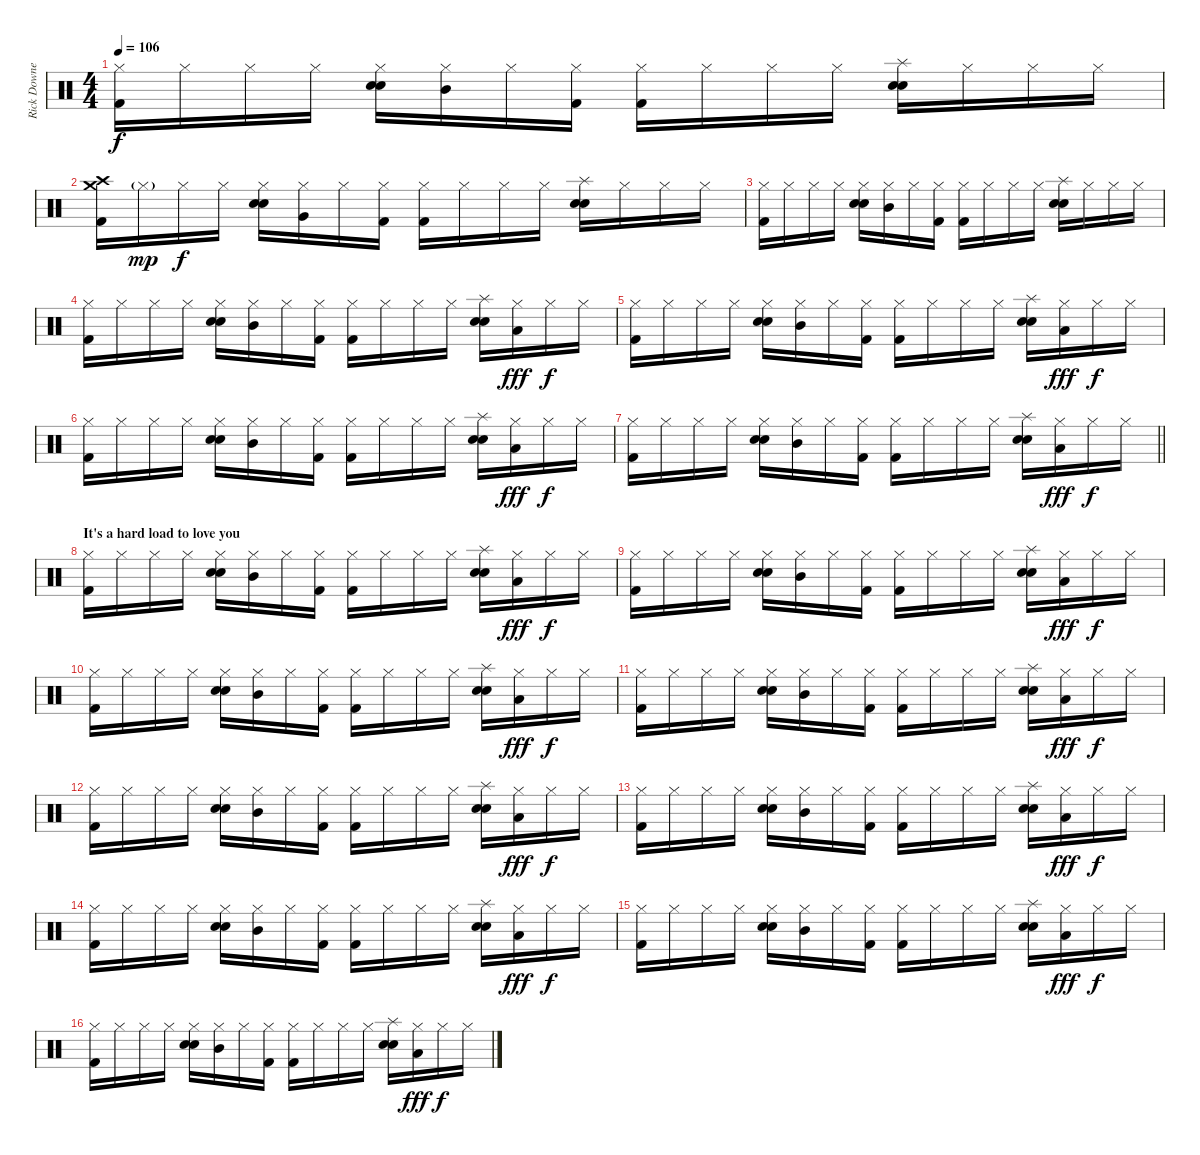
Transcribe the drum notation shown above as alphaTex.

\track ("Rick Downey" "Rick Downe") {instrument percussion}
\staff {score}
\articulation defaults
\ts (4 4)
\tempo 106
\clef neutral
\ks c
("Hi-Hat (closed)" "Kick (hit) 2").16{dy f} "Hi-Hat (closed)".16 "Hi-Hat (closed)".16 "Hi-Hat (closed)".16 ("Hi-Hat (closed)" "Electric Snare (hit)" "Snare (hit) 2").16 ("Mid Tom (hit)" "Hi-Hat (closed)").16 "Hi-Hat (closed)".16 ("Hi-Hat (closed)" "Kick (hit) 2").16 ("Hi-Hat (closed)" "Kick (hit) 2").16 "Hi-Hat (closed)".16 "Hi-Hat (closed)".16 "Hi-Hat (closed)".16 ("Splash (hit)" "Electric Snare (hit)" "Snare (hit) 2").16 "Hi-Hat (closed)".16 "Hi-Hat (closed)".16 "Hi-Hat (closed)".16 |
("Crash medium (hit)" "Crash high (hit)" "Kick (hit) 2").16 "Hi-Hat (closed)"{g}.16{dy mp} "Hi-Hat (closed)".16{dy f} "Hi-Hat (closed)".16 ("Hi-Hat (closed)" "Electric Snare (hit)" "Snare (hit) 2").16 ("Hi-Hat (closed)" "Very Low Tom (hit)").16 "Hi-Hat (closed)".16 ("Hi-Hat (closed)" "Kick (hit) 2").16 ("Hi-Hat (closed)" "Kick (hit) 2").16 "Hi-Hat (closed)".16 "Hi-Hat (closed)".16 "Hi-Hat (closed)".16 ("Splash (hit)" "Electric Snare (hit)" "Snare (hit) 2").16 "Hi-Hat (closed)".16 "Hi-Hat (closed)".16 "Hi-Hat (closed)".16 |
("Hi-Hat (closed)" "Kick (hit) 2").16 "Hi-Hat (closed)".16 "Hi-Hat (closed)".16 "Hi-Hat (closed)".16 ("Hi-Hat (closed)" "Electric Snare (hit)" "Snare (hit) 2").16 ("Mid Tom (hit)" "Hi-Hat (closed)").16 "Hi-Hat (closed)".16 ("Hi-Hat (closed)" "Kick (hit) 2").16 ("Hi-Hat (closed)" "Kick (hit) 2").16 "Hi-Hat (closed)".16 "Hi-Hat (closed)".16 "Hi-Hat (closed)".16 ("Splash (hit)" "Electric Snare (hit)" "Snare (hit) 2").16 "Hi-Hat (closed)".16 "Hi-Hat (closed)".16 "Hi-Hat (closed)".16 |
("Hi-Hat (closed)" "Kick (hit) 2").16 "Hi-Hat (closed)".16 "Hi-Hat (closed)".16 "Hi-Hat (closed)".16 ("Hi-Hat (closed)" "Electric Snare (hit)" "Snare (hit) 2").16 ("Mid Tom (hit)" "Hi-Hat (closed)").16 "Hi-Hat (closed)".16 ("Hi-Hat (closed)" "Kick (hit) 2").16 ("Hi-Hat (closed)" "Kick (hit) 2").16 "Hi-Hat (closed)".16 "Hi-Hat (closed)".16 "Hi-Hat (closed)".16 ("Splash (hit)" "Electric Snare (hit)" "Snare (hit) 2").16 ("Low Tom (hit)" "Hi-Hat (closed)").16{dy fff} "Hi-Hat (closed)".16{dy f} "Hi-Hat (closed)".16 |
("Hi-Hat (closed)" "Kick (hit) 2").16 "Hi-Hat (closed)".16 "Hi-Hat (closed)".16 "Hi-Hat (closed)".16 ("Hi-Hat (closed)" "Electric Snare (hit)" "Snare (hit) 2").16 ("Mid Tom (hit)" "Hi-Hat (closed)").16 "Hi-Hat (closed)".16 ("Hi-Hat (closed)" "Kick (hit) 2").16 ("Hi-Hat (closed)" "Kick (hit) 2").16 "Hi-Hat (closed)".16 "Hi-Hat (closed)".16 "Hi-Hat (closed)".16 ("Splash (hit)" "Electric Snare (hit)" "Snare (hit) 2").16 ("Low Tom (hit)" "Hi-Hat (closed)").16{dy fff} "Hi-Hat (closed)".16{dy f} "Hi-Hat (closed)".16 |
("Hi-Hat (closed)" "Kick (hit) 2").16 "Hi-Hat (closed)".16 "Hi-Hat (closed)".16 "Hi-Hat (closed)".16 ("Hi-Hat (closed)" "Electric Snare (hit)" "Snare (hit) 2").16 ("Mid Tom (hit)" "Hi-Hat (closed)").16 "Hi-Hat (closed)".16 ("Hi-Hat (closed)" "Kick (hit) 2").16 ("Hi-Hat (closed)" "Kick (hit) 2").16 "Hi-Hat (closed)".16 "Hi-Hat (closed)".16 "Hi-Hat (closed)".16 ("Splash (hit)" "Electric Snare (hit)" "Snare (hit) 2").16 ("Low Tom (hit)" "Hi-Hat (closed)").16{dy fff} "Hi-Hat (closed)".16{dy f} "Hi-Hat (closed)".16 |
\barLineRight lightlight
("Hi-Hat (closed)" "Kick (hit) 2").16 "Hi-Hat (closed)".16 "Hi-Hat (closed)".16 "Hi-Hat (closed)".16 ("Hi-Hat (closed)" "Electric Snare (hit)" "Snare (hit) 2").16 ("Mid Tom (hit)" "Hi-Hat (closed)").16 "Hi-Hat (closed)".16 ("Hi-Hat (closed)" "Kick (hit) 2").16 ("Hi-Hat (closed)" "Kick (hit) 2").16 "Hi-Hat (closed)".16 "Hi-Hat (closed)".16 "Hi-Hat (closed)".16 ("Splash (hit)" "Electric Snare (hit)" "Snare (hit) 2").16 ("Low Tom (hit)" "Hi-Hat (closed)").16{dy fff} "Hi-Hat (closed)".16{dy f} "Hi-Hat (closed)".16 |
\section ("" "It's a hard load to love you")
("Hi-Hat (closed)" "Kick (hit) 2").16 "Hi-Hat (closed)".16 "Hi-Hat (closed)".16 "Hi-Hat (closed)".16 ("Hi-Hat (closed)" "Electric Snare (hit)" "Snare (hit) 2").16 ("Mid Tom (hit)" "Hi-Hat (closed)").16 "Hi-Hat (closed)".16 ("Hi-Hat (closed)" "Kick (hit) 2").16 ("Hi-Hat (closed)" "Kick (hit) 2").16 "Hi-Hat (closed)".16 "Hi-Hat (closed)".16 "Hi-Hat (closed)".16 ("Splash (hit)" "Electric Snare (hit)" "Snare (hit) 2").16 ("Low Tom (hit)" "Hi-Hat (closed)").16{dy fff} "Hi-Hat (closed)".16{dy f} "Hi-Hat (closed)".16 |
("Hi-Hat (closed)" "Kick (hit) 2").16 "Hi-Hat (closed)".16 "Hi-Hat (closed)".16 "Hi-Hat (closed)".16 ("Hi-Hat (closed)" "Electric Snare (hit)" "Snare (hit) 2").16 ("Mid Tom (hit)" "Hi-Hat (closed)").16 "Hi-Hat (closed)".16 ("Hi-Hat (closed)" "Kick (hit) 2").16 ("Hi-Hat (closed)" "Kick (hit) 2").16 "Hi-Hat (closed)".16 "Hi-Hat (closed)".16 "Hi-Hat (closed)".16 ("Splash (hit)" "Electric Snare (hit)" "Snare (hit) 2").16 ("Low Tom (hit)" "Hi-Hat (closed)").16{dy fff} "Hi-Hat (closed)".16{dy f} "Hi-Hat (closed)".16 |
("Hi-Hat (closed)" "Kick (hit) 2").16 "Hi-Hat (closed)".16 "Hi-Hat (closed)".16 "Hi-Hat (closed)".16 ("Hi-Hat (closed)" "Electric Snare (hit)" "Snare (hit) 2").16 ("Mid Tom (hit)" "Hi-Hat (closed)").16 "Hi-Hat (closed)".16 ("Hi-Hat (closed)" "Kick (hit) 2").16 ("Hi-Hat (closed)" "Kick (hit) 2").16 "Hi-Hat (closed)".16 "Hi-Hat (closed)".16 "Hi-Hat (closed)".16 ("Splash (hit)" "Electric Snare (hit)" "Snare (hit) 2").16 ("Low Tom (hit)" "Hi-Hat (closed)").16{dy fff} "Hi-Hat (closed)".16{dy f} "Hi-Hat (closed)".16 |
("Hi-Hat (closed)" "Kick (hit) 2").16 "Hi-Hat (closed)".16 "Hi-Hat (closed)".16 "Hi-Hat (closed)".16 ("Hi-Hat (closed)" "Electric Snare (hit)" "Snare (hit) 2").16 ("Mid Tom (hit)" "Hi-Hat (closed)").16 "Hi-Hat (closed)".16 ("Hi-Hat (closed)" "Kick (hit) 2").16 ("Hi-Hat (closed)" "Kick (hit) 2").16 "Hi-Hat (closed)".16 "Hi-Hat (closed)".16 "Hi-Hat (closed)".16 ("Splash (hit)" "Electric Snare (hit)" "Snare (hit) 2").16 ("Low Tom (hit)" "Hi-Hat (closed)").16{dy fff} "Hi-Hat (closed)".16{dy f} "Hi-Hat (closed)".16 |
("Hi-Hat (closed)" "Kick (hit) 2").16 "Hi-Hat (closed)".16 "Hi-Hat (closed)".16 "Hi-Hat (closed)".16 ("Hi-Hat (closed)" "Electric Snare (hit)" "Snare (hit) 2").16 ("Mid Tom (hit)" "Hi-Hat (closed)").16 "Hi-Hat (closed)".16 ("Hi-Hat (closed)" "Kick (hit) 2").16 ("Hi-Hat (closed)" "Kick (hit) 2").16 "Hi-Hat (closed)".16 "Hi-Hat (closed)".16 "Hi-Hat (closed)".16 ("Splash (hit)" "Electric Snare (hit)" "Snare (hit) 2").16 ("Low Tom (hit)" "Hi-Hat (closed)").16{dy fff} "Hi-Hat (closed)".16{dy f} "Hi-Hat (closed)".16 |
("Hi-Hat (closed)" "Kick (hit) 2").16 "Hi-Hat (closed)".16 "Hi-Hat (closed)".16 "Hi-Hat (closed)".16 ("Hi-Hat (closed)" "Electric Snare (hit)" "Snare (hit) 2").16 ("Mid Tom (hit)" "Hi-Hat (closed)").16 "Hi-Hat (closed)".16 ("Hi-Hat (closed)" "Kick (hit) 2").16 ("Hi-Hat (closed)" "Kick (hit) 2").16 "Hi-Hat (closed)".16 "Hi-Hat (closed)".16 "Hi-Hat (closed)".16 ("Splash (hit)" "Electric Snare (hit)" "Snare (hit) 2").16 ("Low Tom (hit)" "Hi-Hat (closed)").16{dy fff} "Hi-Hat (closed)".16{dy f} "Hi-Hat (closed)".16 |
("Hi-Hat (closed)" "Kick (hit) 2").16 "Hi-Hat (closed)".16 "Hi-Hat (closed)".16 "Hi-Hat (closed)".16 ("Hi-Hat (closed)" "Electric Snare (hit)" "Snare (hit) 2").16 ("Mid Tom (hit)" "Hi-Hat (closed)").16 "Hi-Hat (closed)".16 ("Hi-Hat (closed)" "Kick (hit) 2").16 ("Hi-Hat (closed)" "Kick (hit) 2").16 "Hi-Hat (closed)".16 "Hi-Hat (closed)".16 "Hi-Hat (closed)".16 ("Splash (hit)" "Electric Snare (hit)" "Snare (hit) 2").16 ("Low Tom (hit)" "Hi-Hat (closed)").16{dy fff} "Hi-Hat (closed)".16{dy f} "Hi-Hat (closed)".16 |
("Hi-Hat (closed)" "Kick (hit) 2").16 "Hi-Hat (closed)".16 "Hi-Hat (closed)".16 "Hi-Hat (closed)".16 ("Hi-Hat (closed)" "Electric Snare (hit)" "Snare (hit) 2").16 ("Mid Tom (hit)" "Hi-Hat (closed)").16 "Hi-Hat (closed)".16 ("Hi-Hat (closed)" "Kick (hit) 2").16 ("Hi-Hat (closed)" "Kick (hit) 2").16 "Hi-Hat (closed)".16 "Hi-Hat (closed)".16 "Hi-Hat (closed)".16 ("Splash (hit)" "Electric Snare (hit)" "Snare (hit) 2").16 ("Low Tom (hit)" "Hi-Hat (closed)").16{dy fff} "Hi-Hat (closed)".16{dy f} "Hi-Hat (closed)".16 |
("Hi-Hat (closed)" "Kick (hit) 2").16 "Hi-Hat (closed)".16 "Hi-Hat (closed)".16 "Hi-Hat (closed)".16 ("Hi-Hat (closed)" "Electric Snare (hit)" "Snare (hit) 2").16 ("Mid Tom (hit)" "Hi-Hat (closed)").16 "Hi-Hat (closed)".16 ("Hi-Hat (closed)" "Kick (hit) 2").16 ("Hi-Hat (closed)" "Kick (hit) 2").16 "Hi-Hat (closed)".16 "Hi-Hat (closed)".16 "Hi-Hat (closed)".16 ("Splash (hit)" "Electric Snare (hit)" "Snare (hit) 2").16 ("Low Tom (hit)" "Hi-Hat (closed)").16{dy fff} "Hi-Hat (closed)".16{dy f} "Hi-Hat (closed)".16
